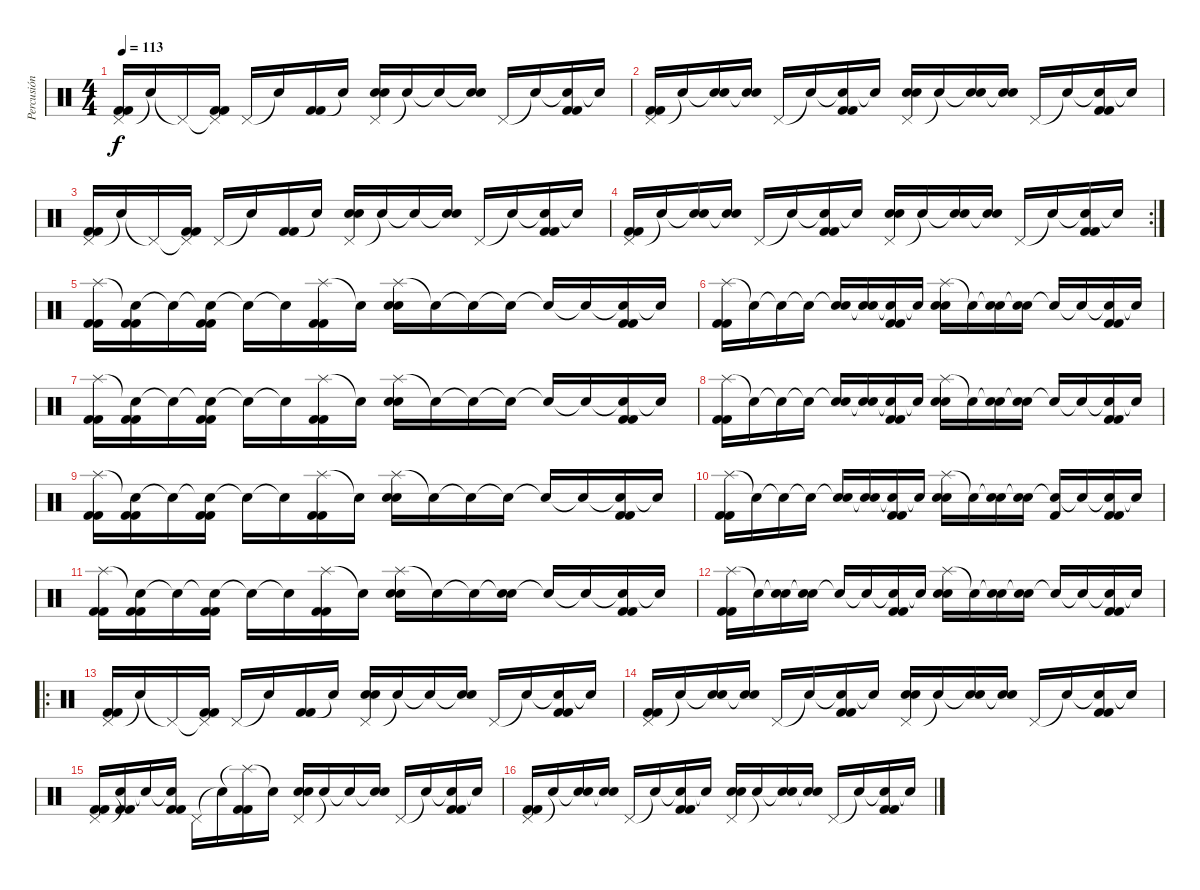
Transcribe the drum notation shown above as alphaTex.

\track ("Percusión" "Percusión") {instrument percussion}
\staff {score}
\articulation defaults
\ts (4 4)
\tempo 113
\clef neutral
\ks c
("Pedal Hi-Hat (hit)" "Kick (hit) 2" "Kick (hit) 2").16{dy f} "Snare (hit)"{t}.16 "Pedal Hi-Hat (hit)"{t}.16 ("Pedal Hi-Hat (hit)"{t} "Kick (hit) 2" "Kick (hit) 2").16 "Pedal Hi-Hat (hit)".16 "Snare (hit)"{t}.16 ("Kick (hit) 2" "Kick (hit) 2").16 "Snare (hit)"{t}.16 ("Pedal Hi-Hat (hit)" "Electric Snare (hit)" "Electric Snare (hit)").16 "Snare (hit)"{t}.16 "Snare (hit)"{t}.16 ("Snare (hit)"{t} "Electric Snare (hit)").16 "Pedal Hi-Hat (hit)".16 "Snare (hit)"{t}.16 ("Snare (hit)"{t} "Kick (hit) 2" "Kick (hit) 2").16 "Snare (hit)"{t}.16 |
("Pedal Hi-Hat (hit)" "Kick (hit) 2" "Kick (hit) 2").16 "Snare (hit)"{t}.16 ("Snare (hit)"{t} "Electric Snare (hit)").16 ("Snare (hit)"{t} "Electric Snare (hit)").16 "Pedal Hi-Hat (hit)".16 "Snare (hit)"{t}.16 ("Snare (hit)"{t} "Kick (hit) 2" "Kick (hit) 2").16 "Snare (hit)"{t}.16 ("Pedal Hi-Hat (hit)" "Electric Snare (hit)" "Electric Snare (hit)").16 "Snare (hit)"{t}.16 ("Snare (hit)"{t} "Electric Snare (hit)").16 ("Snare (hit)"{t} "Electric Snare (hit)").16 "Pedal Hi-Hat (hit)".16 "Snare (hit)"{t}.16 ("Snare (hit)"{t} "Kick (hit) 2" "Kick (hit) 2").16 "Snare (hit)"{t}.16 |
("Pedal Hi-Hat (hit)" "Kick (hit) 2" "Kick (hit) 2").16 "Snare (hit)"{t}.16 "Pedal Hi-Hat (hit)"{t}.16 ("Pedal Hi-Hat (hit)"{t} "Kick (hit) 2" "Kick (hit) 2").16 "Pedal Hi-Hat (hit)".16 "Snare (hit)"{t}.16 ("Kick (hit) 2" "Kick (hit) 2").16 "Snare (hit)"{t}.16 ("Pedal Hi-Hat (hit)" "Electric Snare (hit)" "Electric Snare (hit)").16 "Snare (hit)"{t}.16 "Snare (hit)"{t}.16 ("Snare (hit)"{t} "Electric Snare (hit)").16 "Pedal Hi-Hat (hit)".16 "Snare (hit)"{t}.16 ("Snare (hit)"{t} "Kick (hit) 2" "Kick (hit) 2").16 "Snare (hit)"{t}.16 |
\rc 2
("Pedal Hi-Hat (hit)" "Kick (hit) 2" "Kick (hit) 2").16 "Snare (hit)"{t}.16 ("Snare (hit)"{t} "Electric Snare (hit)").16 ("Snare (hit)"{t} "Electric Snare (hit)").16 "Pedal Hi-Hat (hit)".16 "Snare (hit)"{t}.16 ("Snare (hit)"{t} "Kick (hit) 2" "Kick (hit) 2").16 "Snare (hit)"{t}.16 ("Pedal Hi-Hat (hit)" "Electric Snare (hit)" "Electric Snare (hit)").16 "Snare (hit)"{t}.16 ("Snare (hit)"{t} "Electric Snare (hit)").16 ("Snare (hit)"{t} "Electric Snare (hit)").16 "Pedal Hi-Hat (hit)".16 "Snare (hit)"{t}.16 ("Snare (hit)"{t} "Kick (hit) 2" "Kick (hit) 2").16 "Snare (hit)"{t}.16 |
("Splash (hit)" "Kick (hit) 2" "Kick (hit) 2").16 ("Snare (hit)"{t} "Kick (hit) 2" "Kick (hit) 2").16 "Snare (hit)"{t}.16 ("Snare (hit)"{t} "Kick (hit) 2" "Kick (hit) 2").16 "Snare (hit)"{t}.16 "Snare (hit)"{t}.16 ("Splash (hit)" "Kick (hit) 2" "Kick (hit) 2").16 "Snare (hit)"{t}.16 ("Splash (hit)" "Electric Snare (hit)" "Electric Snare (hit)").16 "Snare (hit)"{t}.16 "Snare (hit)"{t}.16 "Snare (hit)"{t}.16 "Snare (hit)"{t}.16 "Snare (hit)"{t}.16 ("Snare (hit)"{t} "Kick (hit) 2" "Kick (hit) 2").16 "Snare (hit)"{t}.16 |
("Splash (hit)" "Kick (hit) 2" "Kick (hit) 2").16 "Snare (hit)"{t}.16 "Snare (hit)"{t}.16 "Snare (hit)"{t}.16 ("Snare (hit)"{t} "Electric Snare (hit)").16 ("Snare (hit)"{t} "Electric Snare (hit)").16 ("Snare (hit)"{t} "Kick (hit) 2" "Kick (hit) 2").16 "Snare (hit)"{t}.16 ("Splash (hit)" "Electric Snare (hit)" "Electric Snare (hit)").16 "Snare (hit)"{t}.16 ("Snare (hit)"{t} "Electric Snare (hit)").16 ("Snare (hit)"{t} "Electric Snare (hit)").16 "Snare (hit)"{t}.16 "Snare (hit)"{t}.16 ("Snare (hit)"{t} "Kick (hit) 2" "Kick (hit) 2").16 "Snare (hit)"{t}.16 |
("Splash (hit)" "Kick (hit) 2" "Kick (hit) 2").16 ("Snare (hit)"{t} "Kick (hit) 2" "Kick (hit) 2").16 "Snare (hit)"{t}.16 ("Snare (hit)"{t} "Kick (hit) 2" "Kick (hit) 2").16 "Snare (hit)"{t}.16 "Snare (hit)"{t}.16 ("Splash (hit)" "Kick (hit) 2" "Kick (hit) 2").16 "Snare (hit)"{t}.16 ("Splash (hit)" "Electric Snare (hit)" "Electric Snare (hit)").16 "Snare (hit)"{t}.16 "Snare (hit)"{t}.16 "Snare (hit)"{t}.16 "Snare (hit)"{t}.16 "Snare (hit)"{t}.16 ("Snare (hit)"{t} "Kick (hit) 2" "Kick (hit) 2").16 "Snare (hit)"{t}.16 |
("Splash (hit)" "Kick (hit) 2" "Kick (hit) 2").16 "Snare (hit)"{t}.16 "Snare (hit)"{t}.16 "Snare (hit)"{t}.16 ("Snare (hit)"{t} "Electric Snare (hit)").16 ("Snare (hit)"{t} "Electric Snare (hit)").16 ("Snare (hit)"{t} "Kick (hit) 2" "Kick (hit) 2").16 "Snare (hit)"{t}.16 ("Splash (hit)" "Electric Snare (hit)" "Electric Snare (hit)").16 "Snare (hit)"{t}.16 ("Snare (hit)"{t} "Electric Snare (hit)").16 ("Snare (hit)"{t} "Electric Snare (hit)").16 "Snare (hit)"{t}.16 "Snare (hit)"{t}.16 ("Snare (hit)"{t} "Kick (hit) 2" "Kick (hit) 2").16 "Snare (hit)"{t}.16 |
("Splash (hit)" "Kick (hit) 2" "Kick (hit) 2").16 ("Snare (hit)"{t} "Kick (hit) 2" "Kick (hit) 2").16 "Snare (hit)"{t}.16 ("Snare (hit)"{t} "Kick (hit) 2" "Kick (hit) 2").16 "Snare (hit)"{t}.16 "Snare (hit)"{t}.16 ("Splash (hit)" "Kick (hit) 2" "Kick (hit) 2").16 "Snare (hit)"{t}.16 ("Splash (hit)" "Electric Snare (hit)" "Electric Snare (hit)").16 "Snare (hit)"{t}.16 "Snare (hit)"{t}.16 "Snare (hit)"{t}.16 "Snare (hit)"{t}.16 "Snare (hit)"{t}.16 ("Snare (hit)"{t} "Kick (hit) 2" "Kick (hit) 2").16 "Snare (hit)"{t}.16 |
("Splash (hit)" "Kick (hit) 2" "Kick (hit) 2").16 "Snare (hit)"{t}.16 "Snare (hit)"{t}.16 "Snare (hit)"{t}.16 ("Snare (hit)"{t} "Electric Snare (hit)").16 ("Snare (hit)"{t} "Electric Snare (hit)").16 ("Snare (hit)"{t} "Kick (hit) 2" "Kick (hit) 2").16 "Snare (hit)"{t}.16 ("Splash (hit)" "Electric Snare (hit)" "Electric Snare (hit)").16 "Snare (hit)"{t}.16 ("Snare (hit)"{t} "Electric Snare (hit)").16 ("Snare (hit)"{t} "Electric Snare (hit)").16 ("Snare (hit)"{t} "Kick (hit) 2").16 "Snare (hit)"{t}.16 ("Snare (hit)"{t} "Kick (hit) 2" "Kick (hit) 2").16 "Snare (hit)"{t}.16 |
("Splash (hit)" "Kick (hit) 2" "Kick (hit) 2").16 ("Snare (hit)"{t} "Kick (hit) 2" "Kick (hit) 2").16 "Snare (hit)"{t}.16 ("Snare (hit)"{t} "Kick (hit) 2" "Kick (hit) 2").16 "Snare (hit)"{t}.16 "Snare (hit)"{t}.16 ("Splash (hit)" "Kick (hit) 2" "Kick (hit) 2").16 "Snare (hit)"{t}.16 ("Splash (hit)" "Electric Snare (hit)" "Electric Snare (hit)").16 "Snare (hit)"{t}.16 "Snare (hit)"{t}.16 ("Snare (hit)"{t} "Electric Snare (hit)").16 "Snare (hit)"{t}.16 "Snare (hit)"{t}.16 ("Snare (hit)"{t} "Kick (hit) 2" "Kick (hit) 2").16 "Snare (hit)"{t}.16 |
("Splash (hit)" "Kick (hit) 2" "Kick (hit) 2").16 "Snare (hit)"{t}.16 ("Snare (hit)"{t} "Electric Snare (hit)").16 ("Snare (hit)"{t} "Electric Snare (hit)").16 "Snare (hit)"{t}.16 "Snare (hit)"{t}.16 ("Snare (hit)"{t} "Kick (hit) 2" "Kick (hit) 2").16 "Snare (hit)"{t}.16 ("Splash (hit)" "Electric Snare (hit)" "Electric Snare (hit)").16 "Snare (hit)"{t}.16 ("Snare (hit)"{t} "Electric Snare (hit)").16 ("Snare (hit)"{t} "Electric Snare (hit)").16 "Snare (hit)"{t}.16 "Snare (hit)"{t}.16 ("Snare (hit)"{t} "Kick (hit) 2" "Kick (hit) 2").16 "Snare (hit)"{t}.16 |
\ro
("Pedal Hi-Hat (hit)" "Kick (hit) 2" "Kick (hit) 2").16 "Snare (hit)"{t}.16 "Pedal Hi-Hat (hit)"{t}.16 ("Pedal Hi-Hat (hit)"{t} "Kick (hit) 2" "Kick (hit) 2").16 "Pedal Hi-Hat (hit)".16 "Snare (hit)"{t}.16 ("Kick (hit) 2" "Kick (hit) 2").16 "Snare (hit)"{t}.16 ("Pedal Hi-Hat (hit)" "Electric Snare (hit)" "Electric Snare (hit)").16 "Snare (hit)"{t}.16 "Snare (hit)"{t}.16 ("Snare (hit)"{t} "Electric Snare (hit)").16 "Pedal Hi-Hat (hit)".16 "Snare (hit)"{t}.16 ("Snare (hit)"{t} "Kick (hit) 2" "Kick (hit) 2").16 "Snare (hit)"{t}.16 |
("Pedal Hi-Hat (hit)" "Kick (hit) 2" "Kick (hit) 2").16 "Snare (hit)"{t}.16 ("Snare (hit)"{t} "Electric Snare (hit)").16 ("Snare (hit)"{t} "Electric Snare (hit)").16 "Pedal Hi-Hat (hit)".16 "Snare (hit)"{t}.16 ("Snare (hit)"{t} "Kick (hit) 2" "Kick (hit) 2").16 "Snare (hit)"{t}.16 ("Pedal Hi-Hat (hit)" "Electric Snare (hit)" "Electric Snare (hit)").16 "Snare (hit)"{t}.16 ("Snare (hit)"{t} "Electric Snare (hit)").16 ("Snare (hit)"{t} "Electric Snare (hit)").16 "Pedal Hi-Hat (hit)".16 "Snare (hit)"{t}.16 ("Snare (hit)"{t} "Kick (hit) 2" "Kick (hit) 2").16 "Snare (hit)"{t}.16 |
("Pedal Hi-Hat (hit)" "Kick (hit) 2" "Kick (hit) 2").16 ("Snare (hit)"{t} "Kick (hit) 2" "Kick (hit) 2").16 "Snare (hit)"{t}.16 ("Snare (hit)"{t} "Kick (hit) 2" "Kick (hit) 2").16 "Pedal Hi-Hat (hit)".16 "Snare (hit)"{t}.16 ("Splash (hit)"{t} "Kick (hit) 2" "Kick (hit) 2").16 "Snare (hit)"{t}.16 ("Pedal Hi-Hat (hit)" "Electric Snare (hit)" "Electric Snare (hit)").16 "Snare (hit)"{t}.16 "Snare (hit)"{t}.16 ("Snare (hit)"{t} "Electric Snare (hit)").16 "Pedal Hi-Hat (hit)".16 "Snare (hit)"{t}.16 ("Snare (hit)"{t} "Kick (hit) 2" "Kick (hit) 2").16 "Snare (hit)"{t}.16 |
("Pedal Hi-Hat (hit)" "Kick (hit) 2" "Kick (hit) 2").16 "Snare (hit)"{t}.16 ("Snare (hit)"{t} "Electric Snare (hit)").16 ("Snare (hit)"{t} "Electric Snare (hit)").16 "Pedal Hi-Hat (hit)".16 "Snare (hit)"{t}.16 ("Snare (hit)"{t} "Kick (hit) 2" "Kick (hit) 2").16 "Snare (hit)"{t}.16 ("Pedal Hi-Hat (hit)" "Electric Snare (hit)" "Electric Snare (hit)").16 "Snare (hit)"{t}.16 ("Snare (hit)"{t} "Electric Snare (hit)").16 ("Snare (hit)"{t} "Electric Snare (hit)").16 "Pedal Hi-Hat (hit)".16 "Snare (hit)"{t}.16 ("Snare (hit)"{t} "Kick (hit) 2" "Kick (hit) 2").16 "Snare (hit)"{t}.16
